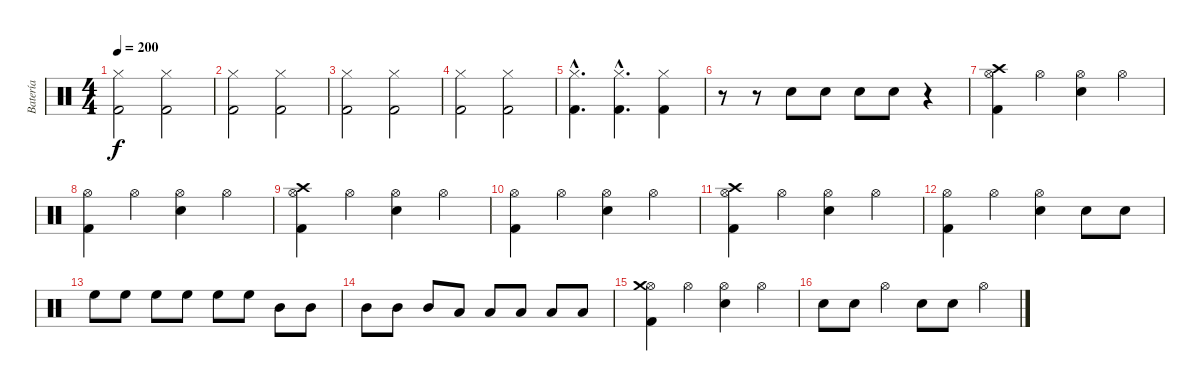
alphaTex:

\track ("Batería" "Batería") {instrument percussion}
\staff {score}
\articulation defaults
\ts (4 4)
\tempo 200
\clef neutral
\ks c
("Kick (hit) 2" "Hi-Hat (closed)").2{dy f} ("Kick (hit) 2" "Hi-Hat (closed)").2 |
("Kick (hit) 2" "Hi-Hat (closed)").2 ("Kick (hit) 2" "Hi-Hat (closed)").2 |
("Kick (hit) 2" "Hi-Hat (closed)").2 ("Kick (hit) 2" "Hi-Hat (closed)").2 |
("Kick (hit) 2" "Hi-Hat (closed)").2 ("Kick (hit) 2" "Hi-Hat (closed)").2 |
("Kick (hit) 2"{hac} "Hi-Hat (closed)"{hac}).4{d} ("Kick (hit) 2"{hac} "Hi-Hat (closed)"{hac}).4{d} ("Kick (hit) 2" "Hi-Hat (closed)").4 |
r.8 r.8 "Electric Snare (hit)".8 "Electric Snare (hit)".8 "Electric Snare (hit)".8 "Electric Snare (hit)".8 r.4 |
("Hi-Hat (open)" "Kick (hit) 2" "Crash high (hit)").4 "Hi-Hat (open)".4 ("Hi-Hat (open)" "Electric Snare (hit)").4 "Hi-Hat (open)".4 |
("Hi-Hat (open)" "Kick (hit) 2").4 "Hi-Hat (open)".4 ("Hi-Hat (open)" "Electric Snare (hit)").4 "Hi-Hat (open)".4 |
("Hi-Hat (open)" "Kick (hit) 2" "Crash high (hit)").4 "Hi-Hat (open)".4 ("Hi-Hat (open)" "Electric Snare (hit)").4 "Hi-Hat (open)".4 |
("Hi-Hat (open)" "Kick (hit) 2").4 "Hi-Hat (open)".4 ("Hi-Hat (open)" "Electric Snare (hit)").4 "Hi-Hat (open)".4 |
("Hi-Hat (open)" "Kick (hit) 2" "Crash high (hit)").4 "Hi-Hat (open)".4 ("Hi-Hat (open)" "Electric Snare (hit)").4 "Hi-Hat (open)".4 |
("Hi-Hat (open)" "Kick (hit) 2").4 "Hi-Hat (open)".4 ("Hi-Hat (open)" "Electric Snare (hit)").4 "Electric Snare (hit)".8 "Electric Snare (hit)".8 |
"High Floor Tom (hit)".8 "High Floor Tom (hit)".8 "High Floor Tom (hit)".8 "High Floor Tom (hit)".8 "High Floor Tom (hit)".8 "High Floor Tom (hit)".8 "Mid Tom (hit)".8 "Mid Tom (hit)".8 |
"Mid Tom (hit)".8 "Mid Tom (hit)".8 "Mid Tom (hit)".8 "Low Tom (hit)".8 "Low Tom (hit)".8 "Low Tom (hit)".8 "Low Tom (hit)".8 "Low Tom (hit)".8 |
("Kick (hit) 2" "Hi-Hat (open)" "Crash medium (hit)").4 "Hi-Hat (open)".4 ("Electric Snare (hit)" "Hi-Hat (open)").4 "Hi-Hat (open)".4 |
"Electric Snare (hit)".8 "Electric Snare (hit)".8 "Hi-Hat (open)".4 "Electric Snare (hit)".8 "Electric Snare (hit)".8 "Hi-Hat (open)".4
